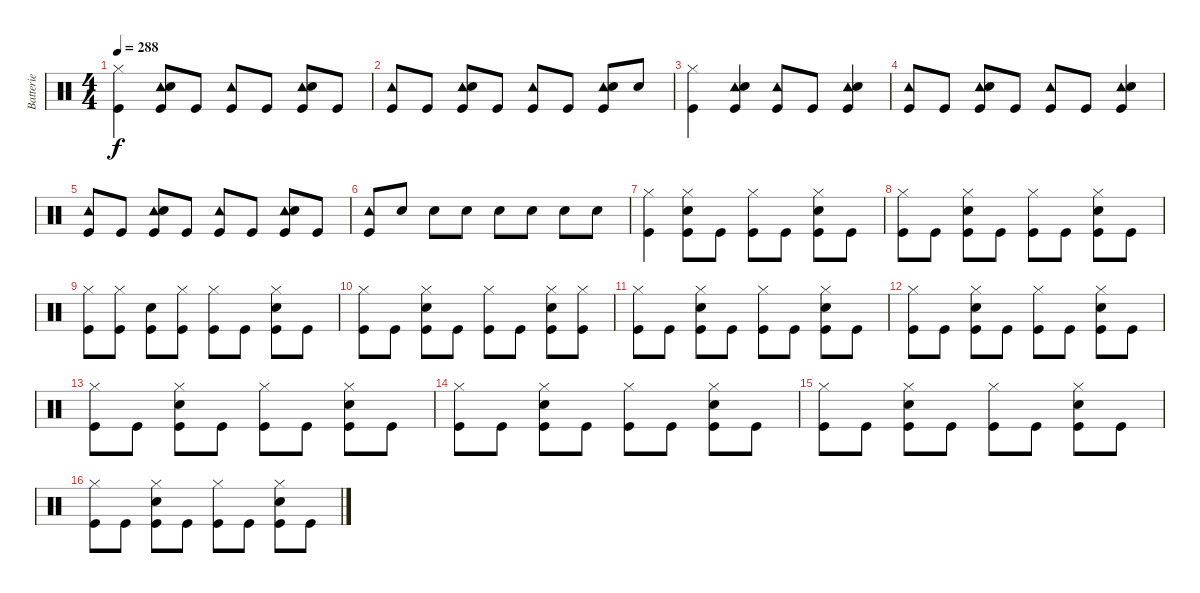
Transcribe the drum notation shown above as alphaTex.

\track ("Batterie" "Batterie") {instrument percussion}
\staff {score}
\articulation defaults
\ts (4 4)
\tempo 288
\clef neutral
\ks c
("Hi-Hat (closed)" "Kick (hit)").4{dy f} ("Tambourine (hit)" "Snare (hit) 2" "Kick (hit)").8 "Kick (hit)".8 ("Tambourine (hit)" "Kick (hit)").8 "Kick (hit)".8 ("Tambourine (hit)" "Snare (hit) 2" "Kick (hit)").8 "Kick (hit)".8 |
("Tambourine (hit)" "Kick (hit)").8 "Kick (hit)".8 ("Tambourine (hit)" "Snare (hit) 2" "Kick (hit)").8 "Kick (hit)".8 ("Tambourine (hit)" "Kick (hit)").8 "Kick (hit)".8 ("Tambourine (hit)" "Snare (hit) 2" "Kick (hit)").8 "Snare (hit) 2".8 |
("Hi-Hat (closed)" "Kick (hit)").4 ("Tambourine (hit)" "Snare (hit) 2" "Kick (hit)").4 ("Tambourine (hit)" "Kick (hit)").8 "Kick (hit)".8 ("Tambourine (hit)" "Snare (hit) 2" "Kick (hit)").4 |
("Tambourine (hit)" "Kick (hit)").8 "Kick (hit)".8 ("Tambourine (hit)" "Snare (hit) 2" "Kick (hit)").8 "Kick (hit)".8 ("Tambourine (hit)" "Kick (hit)").8 "Kick (hit)".8 ("Tambourine (hit)" "Snare (hit) 2" "Kick (hit)").4 |
("Tambourine (hit)" "Kick (hit)").8 "Kick (hit)".8 ("Tambourine (hit)" "Snare (hit) 2" "Kick (hit)").8 "Kick (hit)".8 ("Tambourine (hit)" "Kick (hit)").8 "Kick (hit)".8 ("Tambourine (hit)" "Snare (hit) 2" "Kick (hit)").8 "Kick (hit)".8 |
("Tambourine (hit)" "Kick (hit)").8 "Snare (hit) 2".8 "Snare (hit) 2".8 "Snare (hit) 2".8 "Snare (hit) 2".8 "Snare (hit) 2".8 "Snare (hit) 2".8 "Snare (hit) 2".8 |
("Hi-Hat (closed)" "Kick (hit)").4 ("Hi-Hat (closed)" "Snare (hit) 2" "Kick (hit)").8 "Kick (hit)".8 ("Hi-Hat (closed)" "Kick (hit)").8 "Kick (hit)".8 ("Hi-Hat (closed)" "Snare (hit) 2" "Kick (hit)").8 "Kick (hit)".8 |
("Hi-Hat (closed)" "Kick (hit)").8 "Kick (hit)".8 ("Hi-Hat (closed)" "Snare (hit) 2" "Kick (hit)").8 "Kick (hit)".8 ("Hi-Hat (closed)" "Kick (hit)").8 "Kick (hit)".8 ("Hi-Hat (closed)" "Snare (hit) 2" "Kick (hit)").8 "Kick (hit)".8 |
("Hi-Hat (closed)" "Kick (hit)").8 ("Hi-Hat (closed)" "Kick (hit)").8 ("Snare (hit) 2" "Kick (hit)").8 ("Hi-Hat (closed)" "Kick (hit)").8 ("Hi-Hat (closed)" "Kick (hit)").8 "Kick (hit)".8 ("Hi-Hat (closed)" "Snare (hit) 2" "Kick (hit)").8 "Kick (hit)".8 |
("Hi-Hat (closed)" "Kick (hit)").8 "Kick (hit)".8 ("Hi-Hat (closed)" "Snare (hit) 2" "Kick (hit)").8 "Kick (hit)".8 ("Hi-Hat (closed)" "Kick (hit)").8 "Kick (hit)".8 ("Hi-Hat (closed)" "Snare (hit) 2" "Kick (hit)").8 ("Hi-Hat (closed)" "Kick (hit)").8 |
("Hi-Hat (closed)" "Kick (hit)").8 "Kick (hit)".8 ("Hi-Hat (closed)" "Snare (hit) 2" "Kick (hit)").8 "Kick (hit)".8 ("Hi-Hat (closed)" "Kick (hit)").8 "Kick (hit)".8 ("Hi-Hat (closed)" "Snare (hit) 2" "Kick (hit)").8 "Kick (hit)".8 |
("Hi-Hat (closed)" "Kick (hit)").8 "Kick (hit)".8 ("Hi-Hat (closed)" "Snare (hit) 2" "Kick (hit)").8 "Kick (hit)".8 ("Hi-Hat (closed)" "Kick (hit)").8 "Kick (hit)".8 ("Hi-Hat (closed)" "Snare (hit) 2" "Kick (hit)").8 "Kick (hit)".8 |
("Hi-Hat (closed)" "Kick (hit)").8 "Kick (hit)".8 ("Hi-Hat (closed)" "Snare (hit) 2" "Kick (hit)").8 "Kick (hit)".8 ("Hi-Hat (closed)" "Kick (hit)").8 "Kick (hit)".8 ("Hi-Hat (closed)" "Snare (hit) 2" "Kick (hit)").8 "Kick (hit)".8 |
("Hi-Hat (closed)" "Kick (hit)").8 "Kick (hit)".8 ("Hi-Hat (closed)" "Snare (hit) 2" "Kick (hit)").8 "Kick (hit)".8 ("Hi-Hat (closed)" "Kick (hit)").8 "Kick (hit)".8 ("Hi-Hat (closed)" "Snare (hit) 2" "Kick (hit)").8 "Kick (hit)".8 |
("Hi-Hat (closed)" "Kick (hit)").8 "Kick (hit)".8 ("Hi-Hat (closed)" "Snare (hit) 2" "Kick (hit)").8 "Kick (hit)".8 ("Hi-Hat (closed)" "Kick (hit)").8 "Kick (hit)".8 ("Hi-Hat (closed)" "Snare (hit) 2" "Kick (hit)").8 "Kick (hit)".8 |
("Hi-Hat (closed)" "Kick (hit)").8 "Kick (hit)".8 ("Hi-Hat (closed)" "Snare (hit) 2" "Kick (hit)").8 "Kick (hit)".8 ("Hi-Hat (closed)" "Kick (hit)").8 "Kick (hit)".8 ("Hi-Hat (closed)" "Snare (hit) 2" "Kick (hit)").8 "Kick (hit)".8
